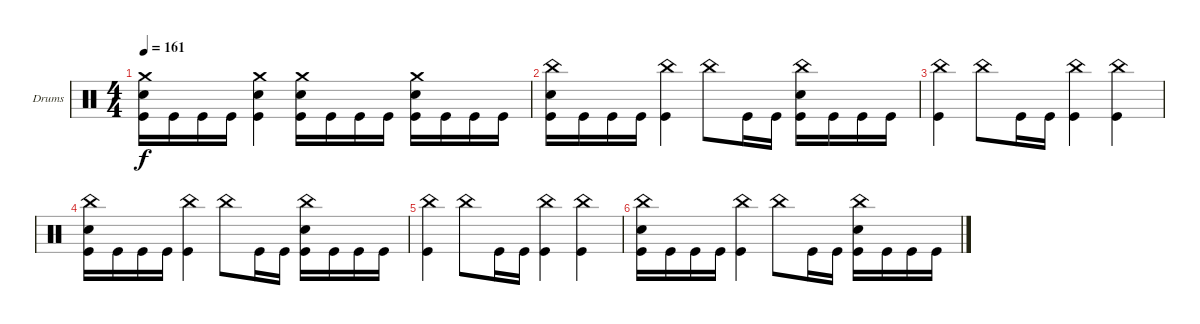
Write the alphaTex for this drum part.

\bracketExtendMode groupsimilarinstruments
\firstSystemTrackNameOrientation horizontal
\otherSystemsTrackNameOrientation horizontal
\track ("Drumkit" "Drums") {instrument percussion}
\staff {score}
\articulation defaults
\ts (4 4)
\tempo 161
\clef neutral
\ks c
("Crash medium (hit)" "Snare (hit) 2" "Kick (hit)").16{dy f} "Kick (hit)".16 "Kick (hit)".16 "Kick (hit)".16 ("Crash medium (hit)" "Snare (hit) 2" "Kick (hit)").4 ("Crash medium (hit)" "Snare (hit) 2" "Kick (hit)").16 "Kick (hit)".16 "Kick (hit)".16 "Kick (hit)".16 ("Crash medium (hit)" "Snare (hit) 2" "Kick (hit)").16 "Kick (hit)".16 "Kick (hit)".16 "Kick (hit)".16 |
("China (hit)" "Snare (hit) 2" "Kick (hit)").16 "Kick (hit)".16 "Kick (hit)".16 "Kick (hit)".16 ("China (hit)" "Kick (hit)").4 "China (hit)".8 "Kick (hit)".16 "Kick (hit)".16 ("China (hit)" "Snare (hit) 2" "Kick (hit)").16 "Kick (hit)".16 "Kick (hit)".16 "Kick (hit)".16 |
("China (hit)" "Kick (hit)").4 "China (hit)".8 "Kick (hit)".16 "Kick (hit)".16 ("China (hit)" "Kick (hit)").4 ("China (hit)" "Kick (hit)").4 |
("China (hit)" "Snare (hit) 2" "Kick (hit)").16 "Kick (hit)".16 "Kick (hit)".16 "Kick (hit)".16 ("China (hit)" "Kick (hit)").4 "China (hit)".8 "Kick (hit)".16 "Kick (hit)".16 ("China (hit)" "Snare (hit) 2" "Kick (hit)").16 "Kick (hit)".16 "Kick (hit)".16 "Kick (hit)".16 |
("China (hit)" "Kick (hit)").4 "China (hit)".8 "Kick (hit)".16 "Kick (hit)".16 ("China (hit)" "Kick (hit)").4 ("China (hit)" "Kick (hit)").4 |
("China (hit)" "Snare (hit) 2" "Kick (hit)").16 "Kick (hit)".16 "Kick (hit)".16 "Kick (hit)".16 ("China (hit)" "Kick (hit)").4 "China (hit)".8 "Kick (hit)".16 "Kick (hit)".16 ("China (hit)" "Snare (hit) 2" "Kick (hit)").16 "Kick (hit)".16 "Kick (hit)".16 "Kick (hit)".16
